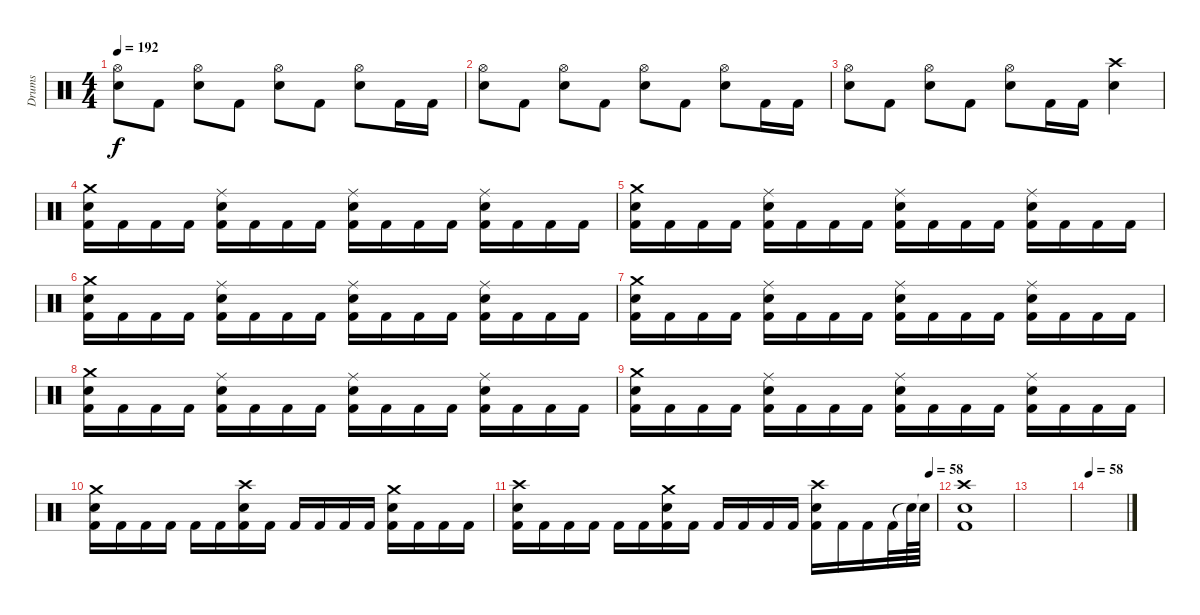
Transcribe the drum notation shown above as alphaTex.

\track ("Drums" "Drums") {instrument percussion}
\staff {score}
\articulation defaults
\ts (4 4)
\tempo 192
\clef neutral
\ks c
("Hi-Hat (open)" "Electric Snare (hit)").8{dy f} "Kick (hit) 2".8 ("Hi-Hat (open)" "Electric Snare (hit)").8 "Kick (hit) 2".8 ("Hi-Hat (open)" "Electric Snare (hit)").8 "Kick (hit) 2".8 ("Hi-Hat (open)" "Electric Snare (hit)").8 "Kick (hit) 2".16 "Kick (hit) 2".16 |
("Hi-Hat (open)" "Electric Snare (hit)").8 "Kick (hit) 2".8 ("Hi-Hat (open)" "Electric Snare (hit)").8 "Kick (hit) 2".8 ("Hi-Hat (open)" "Electric Snare (hit)").8 "Kick (hit) 2".8 ("Hi-Hat (open)" "Electric Snare (hit)").8 "Kick (hit) 2".16 "Kick (hit) 2".16 |
("Hi-Hat (open)" "Electric Snare (hit)").8 "Kick (hit) 2".8 ("Hi-Hat (open)" "Electric Snare (hit)").8 "Kick (hit) 2".8 ("Hi-Hat (open)" "Electric Snare (hit)").8 "Kick (hit) 2".16 "Kick (hit) 2".16 ("Crash high (hit)" "Electric Snare (hit)").4 |
("Crash medium (hit)" "Electric Snare (hit)" "Kick (hit) 2").16 "Kick (hit) 2".16 "Kick (hit) 2".16 "Kick (hit) 2".16 ("Ride (middle)" "Electric Snare (hit)" "Kick (hit) 2").16 "Kick (hit) 2".16 "Kick (hit) 2".16 "Kick (hit) 2".16 ("Ride (middle)" "Electric Snare (hit)" "Kick (hit) 2").16 "Kick (hit) 2".16 "Kick (hit) 2".16 "Kick (hit) 2".16 ("Ride (middle)" "Electric Snare (hit)" "Kick (hit) 2").16 "Kick (hit) 2".16 "Kick (hit) 2".16 "Kick (hit) 2".16 |
("Crash medium (hit)" "Electric Snare (hit)" "Kick (hit) 2").16 "Kick (hit) 2".16 "Kick (hit) 2".16 "Kick (hit) 2".16 ("Ride (middle)" "Electric Snare (hit)" "Kick (hit) 2").16 "Kick (hit) 2".16 "Kick (hit) 2".16 "Kick (hit) 2".16 ("Ride (middle)" "Electric Snare (hit)" "Kick (hit) 2").16 "Kick (hit) 2".16 "Kick (hit) 2".16 "Kick (hit) 2".16 ("Ride (middle)" "Electric Snare (hit)" "Kick (hit) 2").16 "Kick (hit) 2".16 "Kick (hit) 2".16 "Kick (hit) 2".16 |
("Crash medium (hit)" "Electric Snare (hit)" "Kick (hit) 2").16 "Kick (hit) 2".16 "Kick (hit) 2".16 "Kick (hit) 2".16 ("Ride (middle)" "Electric Snare (hit)" "Kick (hit) 2").16 "Kick (hit) 2".16 "Kick (hit) 2".16 "Kick (hit) 2".16 ("Ride (middle)" "Electric Snare (hit)" "Kick (hit) 2").16 "Kick (hit) 2".16 "Kick (hit) 2".16 "Kick (hit) 2".16 ("Ride (middle)" "Electric Snare (hit)" "Kick (hit) 2").16 "Kick (hit) 2".16 "Kick (hit) 2".16 "Kick (hit) 2".16 |
("Crash medium (hit)" "Electric Snare (hit)" "Kick (hit) 2").16 "Kick (hit) 2".16 "Kick (hit) 2".16 "Kick (hit) 2".16 ("Ride (middle)" "Electric Snare (hit)" "Kick (hit) 2").16 "Kick (hit) 2".16 "Kick (hit) 2".16 "Kick (hit) 2".16 ("Ride (middle)" "Electric Snare (hit)" "Kick (hit) 2").16 "Kick (hit) 2".16 "Kick (hit) 2".16 "Kick (hit) 2".16 ("Ride (middle)" "Electric Snare (hit)" "Kick (hit) 2").16 "Kick (hit) 2".16 "Kick (hit) 2".16 "Kick (hit) 2".16 |
("Crash medium (hit)" "Electric Snare (hit)" "Kick (hit) 2").16 "Kick (hit) 2".16 "Kick (hit) 2".16 "Kick (hit) 2".16 ("Ride (middle)" "Electric Snare (hit)" "Kick (hit) 2").16 "Kick (hit) 2".16 "Kick (hit) 2".16 "Kick (hit) 2".16 ("Ride (middle)" "Electric Snare (hit)" "Kick (hit) 2").16 "Kick (hit) 2".16 "Kick (hit) 2".16 "Kick (hit) 2".16 ("Ride (middle)" "Electric Snare (hit)" "Kick (hit) 2").16 "Kick (hit) 2".16 "Kick (hit) 2".16 "Kick (hit) 2".16 |
("Crash medium (hit)" "Electric Snare (hit)" "Kick (hit) 2").16 "Kick (hit) 2".16 "Kick (hit) 2".16 "Kick (hit) 2".16 ("Ride (middle)" "Electric Snare (hit)" "Kick (hit) 2").16 "Kick (hit) 2".16 "Kick (hit) 2".16 "Kick (hit) 2".16 ("Ride (middle)" "Electric Snare (hit)" "Kick (hit) 2").16 "Kick (hit) 2".16 "Kick (hit) 2".16 "Kick (hit) 2".16 ("Ride (middle)" "Electric Snare (hit)" "Kick (hit) 2").16 "Kick (hit) 2".16 "Kick (hit) 2".16 "Kick (hit) 2".16 |
("Crash medium (hit)" "Electric Snare (hit)" "Kick (hit) 2").16 "Kick (hit) 2".16 "Kick (hit) 2".16 "Kick (hit) 2".16 "Kick (hit) 2".16 "Kick (hit) 2".16 ("Crash high (hit)" "Electric Snare (hit)" "Kick (hit) 2").16 "Kick (hit) 2".16 "Kick (hit) 2".16 "Kick (hit) 2".16 "Kick (hit) 2".16 "Kick (hit) 2".16 ("Crash medium (hit)" "Electric Snare (hit)" "Kick (hit) 2").16 "Kick (hit) 2".16 "Kick (hit) 2".16 "Kick (hit) 2".16 |
\tempo (58 0.984375)
("Crash high (hit)" "Electric Snare (hit)" "Kick (hit) 2").16 "Kick (hit) 2".16 "Kick (hit) 2".16 "Kick (hit) 2".16 "Kick (hit) 2".16 "Kick (hit) 2".16 ("Crash medium (hit)" "Electric Snare (hit)" "Kick (hit) 2").16 "Kick (hit) 2".16 "Kick (hit) 2".16 "Kick (hit) 2".16 "Kick (hit) 2".16 "Kick (hit) 2".16 ("Crash high (hit)" "Electric Snare (hit)" "Kick (hit) 2").16 "Kick (hit) 2".16 "Kick (hit) 2".16 "Kick (hit) 2".32 "Snare (hit)"{t}.64 "Snare (hit)"{t}.64 |
("Crash high (hit)" "Electric Snare (hit)" "Kick (hit) 2").1 |
|
\tempo 58
